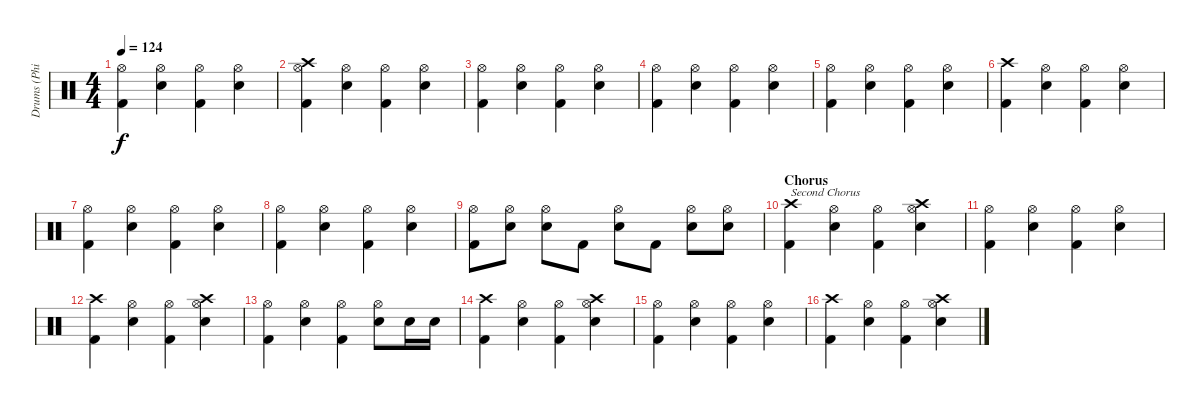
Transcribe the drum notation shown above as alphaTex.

\track ("Drums (Phil R.)" "Drums (Phi") {instrument percussion}
\staff {score}
\articulation defaults
\ts (4 4)
\tempo 124
\clef neutral
\ks c
("Hi-Hat (open)" "Kick (hit) 2").4{dy f} ("Snare (hit) 2" "Hi-Hat (open)").4 ("Hi-Hat (open)" "Kick (hit) 2").4 ("Snare (hit) 2" "Hi-Hat (open)").4 |
("Crash high (hit)" "Hi-Hat (open)" "Kick (hit) 2").4 ("Snare (hit) 2" "Hi-Hat (open)").4 ("Hi-Hat (open)" "Kick (hit) 2").4 ("Snare (hit) 2" "Hi-Hat (open)").4 |
("Hi-Hat (open)" "Kick (hit) 2").4 ("Snare (hit) 2" "Hi-Hat (open)").4 ("Hi-Hat (open)" "Kick (hit) 2").4 ("Snare (hit) 2" "Hi-Hat (open)").4 |
("Hi-Hat (open)" "Kick (hit) 2").4 ("Snare (hit) 2" "Hi-Hat (open)").4 ("Hi-Hat (open)" "Kick (hit) 2").4 ("Snare (hit) 2" "Hi-Hat (open)").4 |
("Hi-Hat (open)" "Kick (hit) 2").4 ("Snare (hit) 2" "Hi-Hat (open)").4 ("Hi-Hat (open)" "Kick (hit) 2").4 ("Snare (hit) 2" "Hi-Hat (open)").4 |
("Crash high (hit)" "Kick (hit) 2").4 ("Snare (hit) 2" "Hi-Hat (open)").4 ("Hi-Hat (open)" "Kick (hit) 2").4 ("Snare (hit) 2" "Hi-Hat (open)").4 |
("Hi-Hat (open)" "Kick (hit) 2").4 ("Snare (hit) 2" "Hi-Hat (open)").4 ("Hi-Hat (open)" "Kick (hit) 2").4 ("Snare (hit) 2" "Hi-Hat (open)").4 |
("Hi-Hat (open)" "Kick (hit) 2").4 ("Snare (hit) 2" "Hi-Hat (open)").4 ("Hi-Hat (open)" "Kick (hit) 2").4 ("Snare (hit) 2" "Hi-Hat (open)").4 |
("Hi-Hat (open)" "Kick (hit) 2").8 ("Snare (hit) 2" "Hi-Hat (open)").8 ("Snare (hit) 2" "Hi-Hat (open)").8 "Kick (hit) 2".8 ("Snare (hit) 2" "Hi-Hat (open)").8 "Kick (hit) 2".8 ("Snare (hit) 2" "Hi-Hat (open)").8 ("Snare (hit) 2" "Hi-Hat (open)").8 |
\section ("" "Chorus")
("Crash high (hit)" "Kick (hit) 2").4{txt "Second Chorus"} ("Snare (hit) 2" "Hi-Hat (open)").4 ("Hi-Hat (open)" "Kick (hit) 2").4 ("Crash high (hit)" "Snare (hit) 2" "Hi-Hat (open)").4 |
("Hi-Hat (open)" "Kick (hit) 2").4 ("Snare (hit) 2" "Hi-Hat (open)").4 ("Hi-Hat (open)" "Kick (hit) 2").4 ("Snare (hit) 2" "Hi-Hat (open)").4 |
("Crash high (hit)" "Kick (hit) 2").4 ("Snare (hit) 2" "Hi-Hat (open)").4 ("Hi-Hat (open)" "Kick (hit) 2").4 ("Crash high (hit)" "Snare (hit) 2" "Hi-Hat (open)").4 |
("Hi-Hat (open)" "Kick (hit) 2").4 ("Snare (hit) 2" "Hi-Hat (open)").4 ("Hi-Hat (open)" "Kick (hit) 2").4 ("Snare (hit) 2" "Hi-Hat (open)").8 "Snare (hit) 2".16 "Snare (hit) 2".16 |
("Crash high (hit)" "Kick (hit) 2").4 ("Snare (hit) 2" "Hi-Hat (open)").4 ("Hi-Hat (open)" "Kick (hit) 2").4 ("Crash high (hit)" "Snare (hit) 2" "Hi-Hat (open)").4 |
("Hi-Hat (open)" "Kick (hit) 2").4 ("Snare (hit) 2" "Hi-Hat (open)").4 ("Hi-Hat (open)" "Kick (hit) 2").4 ("Snare (hit) 2" "Hi-Hat (open)").4 |
("Crash high (hit)" "Kick (hit) 2").4 ("Snare (hit) 2" "Hi-Hat (open)").4 ("Hi-Hat (open)" "Kick (hit) 2").4 ("Crash high (hit)" "Snare (hit) 2" "Hi-Hat (open)").4
